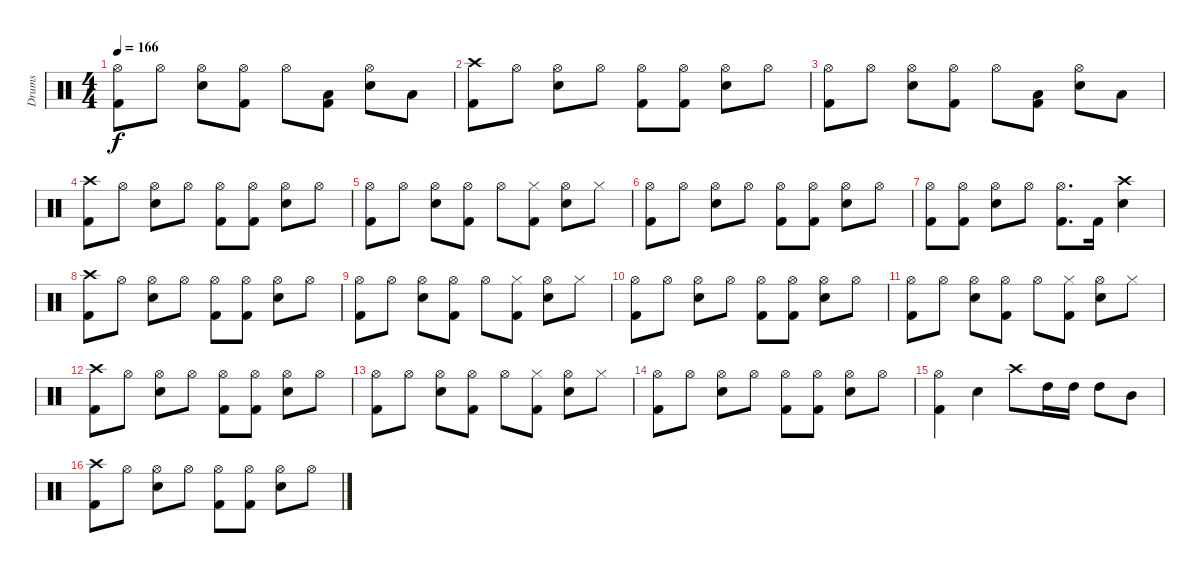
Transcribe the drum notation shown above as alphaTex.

\track ("Drums" "Drums") {instrument percussion}
\staff {score}
\articulation defaults
\ts (4 4)
\tempo 166
\clef neutral
\ks c
("Hi-Hat (open)" "Kick (hit) 2").8{dy f} "Hi-Hat (open)".8 ("Hi-Hat (open)" "Snare (hit) 2").8 ("Hi-Hat (open)" "Kick (hit) 2").8 "Hi-Hat (open)".8 ("Low Floor Tom (hit)" "Kick (hit) 2").8 ("Hi-Hat (open)" "Snare (hit) 2").8 "Low Floor Tom (hit)".8 |
("Crash high (hit)" "Kick (hit) 2").8 "Hi-Hat (open)".8 ("Hi-Hat (open)" "Snare (hit) 2").8 "Hi-Hat (open)".8 ("Hi-Hat (open)" "Kick (hit) 2").8 ("Hi-Hat (open)" "Kick (hit) 2").8 ("Hi-Hat (open)" "Snare (hit) 2").8 "Hi-Hat (open)".8 |
("Hi-Hat (open)" "Kick (hit) 2").8 "Hi-Hat (open)".8 ("Hi-Hat (open)" "Snare (hit) 2").8 ("Hi-Hat (open)" "Kick (hit) 2").8 "Hi-Hat (open)".8 ("Low Floor Tom (hit)" "Kick (hit) 2").8 ("Hi-Hat (open)" "Snare (hit) 2").8 "Low Floor Tom (hit)".8 |
("Crash high (hit)" "Kick (hit) 2").8 "Hi-Hat (open)".8 ("Hi-Hat (open)" "Snare (hit) 2").8 "Hi-Hat (open)".8 ("Hi-Hat (open)" "Kick (hit) 2").8 ("Hi-Hat (open)" "Kick (hit) 2").8 ("Hi-Hat (open)" "Snare (hit) 2").8 "Hi-Hat (open)".8 |
("Hi-Hat (open)" "Kick (hit) 2").8 "Hi-Hat (open)".8 ("Hi-Hat (open)" "Snare (hit) 2").8 ("Hi-Hat (open)" "Kick (hit) 2").8 "Hi-Hat (open)".8 ("Hi-Hat (closed)" "Kick (hit) 2").8 ("Hi-Hat (open)" "Snare (hit) 2").8 "Hi-Hat (closed)".8 |
("Hi-Hat (open)" "Kick (hit) 2").8 "Hi-Hat (open)".8 ("Hi-Hat (open)" "Snare (hit) 2").8 "Hi-Hat (open)".8 ("Hi-Hat (open)" "Kick (hit) 2").8 ("Hi-Hat (open)" "Kick (hit) 2").8 ("Hi-Hat (open)" "Snare (hit) 2").8 "Hi-Hat (open)".8 |
("Hi-Hat (open)" "Kick (hit) 2").8 ("Hi-Hat (open)" "Kick (hit) 2").8 ("Hi-Hat (open)" "Snare (hit) 2").8 "Hi-Hat (open)".8 ("Hi-Hat (open)" "Kick (hit) 2").8{d} "Kick (hit) 2".16 ("Crash high (hit)" "Snare (hit) 2").4 |
("Crash high (hit)" "Kick (hit) 2").8 "Hi-Hat (open)".8 ("Hi-Hat (open)" "Snare (hit) 2").8 "Hi-Hat (open)".8 ("Hi-Hat (open)" "Kick (hit) 2").8 ("Hi-Hat (open)" "Kick (hit) 2").8 ("Hi-Hat (open)" "Snare (hit) 2").8 "Hi-Hat (open)".8 |
("Hi-Hat (open)" "Kick (hit) 2").8 "Hi-Hat (open)".8 ("Hi-Hat (open)" "Snare (hit) 2").8 ("Hi-Hat (open)" "Kick (hit) 2").8 "Hi-Hat (open)".8 ("Hi-Hat (closed)" "Kick (hit) 2").8 ("Hi-Hat (open)" "Snare (hit) 2").8 "Hi-Hat (closed)".8 |
("Hi-Hat (open)" "Kick (hit) 2").8 "Hi-Hat (open)".8 ("Hi-Hat (open)" "Snare (hit) 2").8 "Hi-Hat (open)".8 ("Hi-Hat (open)" "Kick (hit) 2").8 ("Hi-Hat (open)" "Kick (hit) 2").8 ("Hi-Hat (open)" "Snare (hit) 2").8 "Hi-Hat (open)".8 |
("Hi-Hat (open)" "Kick (hit) 2").8 "Hi-Hat (open)".8 ("Hi-Hat (open)" "Snare (hit) 2").8 ("Hi-Hat (open)" "Kick (hit) 2").8 "Hi-Hat (open)".8 ("Hi-Hat (closed)" "Kick (hit) 2").8 ("Hi-Hat (open)" "Snare (hit) 2").8 "Hi-Hat (closed)".8 |
("Crash high (hit)" "Kick (hit) 2").8 "Hi-Hat (open)".8 ("Hi-Hat (open)" "Snare (hit) 2").8 "Hi-Hat (open)".8 ("Hi-Hat (open)" "Kick (hit) 2").8 ("Hi-Hat (open)" "Kick (hit) 2").8 ("Hi-Hat (open)" "Snare (hit) 2").8 "Hi-Hat (open)".8 |
("Hi-Hat (open)" "Kick (hit) 2").8 "Hi-Hat (open)".8 ("Hi-Hat (open)" "Snare (hit) 2").8 ("Hi-Hat (open)" "Kick (hit) 2").8 "Hi-Hat (open)".8 ("Hi-Hat (closed)" "Kick (hit) 2").8 ("Hi-Hat (open)" "Snare (hit) 2").8 "Hi-Hat (closed)".8 |
("Hi-Hat (open)" "Kick (hit) 2").8 "Hi-Hat (open)".8 ("Hi-Hat (open)" "Snare (hit) 2").8 "Hi-Hat (open)".8 ("Hi-Hat (open)" "Kick (hit) 2").8 ("Hi-Hat (open)" "Kick (hit) 2").8 ("Hi-Hat (open)" "Snare (hit) 2").8 "Hi-Hat (open)".8 |
("Hi-Hat (open)" "Kick (hit) 2").4 "Snare (hit) 2".4 "Crash high (hit)".8 "High Tom (hit)".16 "High Tom (hit)".16 "High Tom (hit)".8 "Mid Tom (hit)".8 |
("Crash high (hit)" "Kick (hit) 2").8 "Hi-Hat (open)".8 ("Hi-Hat (open)" "Snare (hit) 2").8 "Hi-Hat (open)".8 ("Hi-Hat (open)" "Kick (hit) 2").8 ("Hi-Hat (open)" "Kick (hit) 2").8 ("Hi-Hat (open)" "Snare (hit) 2").8 "Hi-Hat (open)".8
